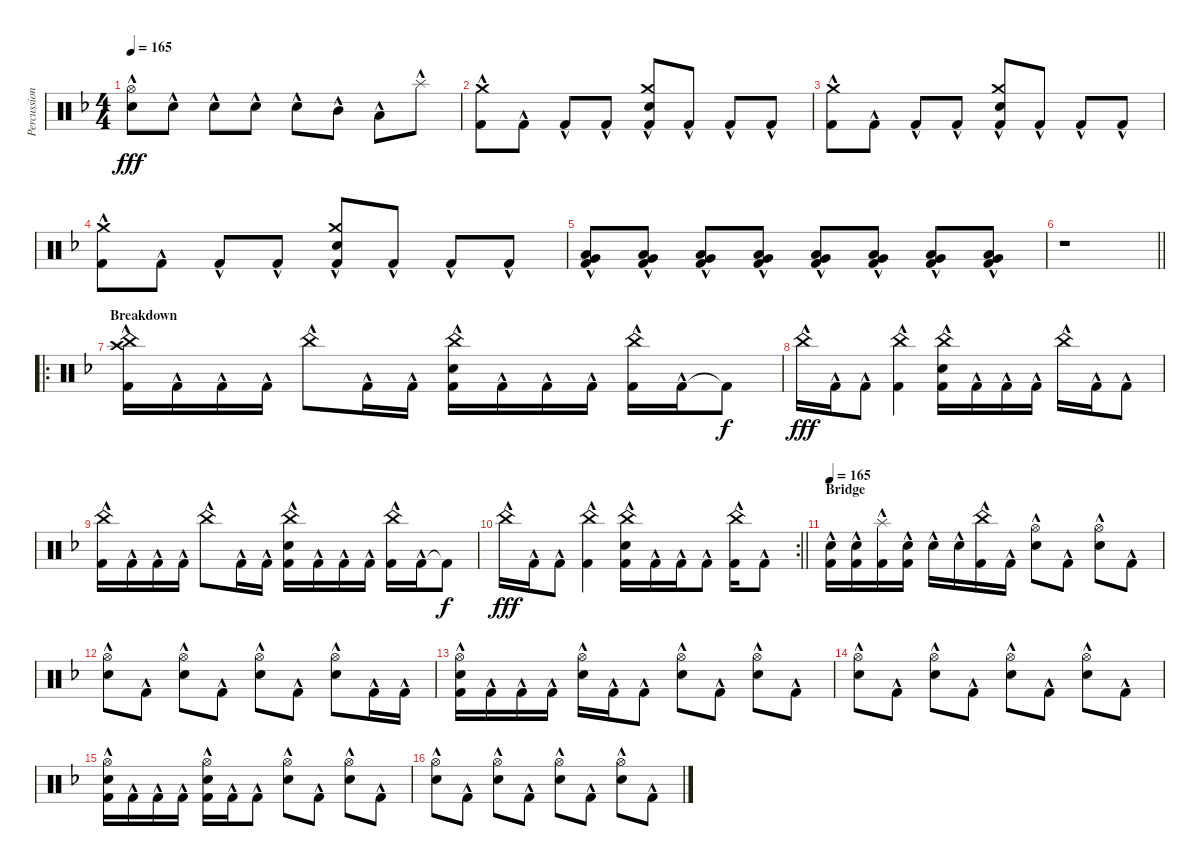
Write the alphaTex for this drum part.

\track ("Percussion" "Percussion") {instrument percussion}
\staff {score}
\articulation defaults
\ts (4 4)
\tempo 165
\clef neutral
\ks f
("Hi-Hat (open)"{hac} "Electric Snare (hit)"{hac}).8{dy fff} "Electric Snare (hit)"{hac}.8 "Electric Snare (hit)"{hac}.8 "Electric Snare (hit)"{hac}.8 "Electric Snare (hit)"{hac}.8 "Mid Tom (hit)"{hac}.8 "Low Tom (hit)"{hac}.8 "Splash (hit)"{hac}.8 |
("Crash medium (hit)"{hac} "Kick (hit) 2"{hac}).8 "Kick (hit) 2"{hac}.8 "Kick (hit) 2"{hac}.8 "Kick (hit) 2"{hac}.8 ("Crash medium (hit)"{hac} "Electric Snare (hit)"{hac} "Kick (hit) 2"{hac}).8 "Kick (hit) 2"{hac}.8 "Kick (hit) 2"{hac}.8 "Kick (hit) 2"{hac}.8 |
("Crash medium (hit)"{hac} "Kick (hit) 2"{hac}).8 "Kick (hit) 2"{hac}.8 "Kick (hit) 2"{hac}.8 "Kick (hit) 2"{hac}.8 ("Crash medium (hit)"{hac} "Electric Snare (hit)"{hac} "Kick (hit) 2"{hac}).8 "Kick (hit) 2"{hac}.8 "Kick (hit) 2"{hac}.8 "Kick (hit) 2"{hac}.8 |
("Crash medium (hit)"{hac} "Kick (hit) 2"{hac}).8 "Kick (hit) 2"{hac}.8 "Kick (hit) 2"{hac}.8 "Kick (hit) 2"{hac}.8 ("Crash medium (hit)"{hac} "Electric Snare (hit)"{hac} "Kick (hit) 2"{hac}).8 "Kick (hit) 2"{hac}.8 "Kick (hit) 2"{hac}.8 "Kick (hit) 2"{hac}.8 |
("Low Tom (hit)"{hac} "Very Low Tom (hit)"{hac} "Kick (hit) 2"{hac}).8 ("Low Tom (hit)"{hac} "Very Low Tom (hit)"{hac} "Kick (hit) 2"{hac}).8 ("Low Tom (hit)"{hac} "Very Low Tom (hit)"{hac} "Kick (hit) 2"{hac}).8 ("Low Tom (hit)"{hac} "Very Low Tom (hit)"{hac} "Kick (hit) 2"{hac}).8 ("Low Tom (hit)"{hac} "Very Low Tom (hit)"{hac} "Kick (hit) 2"{hac}).8 ("Low Tom (hit)"{hac} "Very Low Tom (hit)"{hac} "Kick (hit) 2"{hac}).8 ("Low Tom (hit)"{hac} "Very Low Tom (hit)"{hac} "Kick (hit) 2"{hac}).8 ("Low Tom (hit)"{hac} "Very Low Tom (hit)"{hac} "Kick (hit) 2"{hac}).8 |
\barLineRight lightlight
r.1 |
\ro
\section ("" "Breakdown")
("China (hit)"{hac} "Crash high (hit)"{hac} "Kick (hit) 2"{hac}).16 "Kick (hit) 2"{hac}.16 "Kick (hit) 2"{hac}.16 "Kick (hit) 2"{hac}.16 "China (hit)"{hac}.8 "Kick (hit) 2"{hac}.16 "Kick (hit) 2"{hac}.16 ("China (hit)"{hac} "Electric Snare (hit)"{hac} "Kick (hit) 2"{hac}).16 "Kick (hit) 2"{hac}.16 "Kick (hit) 2"{hac}.16 "Kick (hit) 2"{hac}.16 ("China (hit)"{hac} "Kick (hit) 2"{hac}).16 "Kick (hit) 2"{hac}.16 "Kick (hit) 2"{t}.8{dy f} |
"China (hit)"{hac}.16{dy fff} "Kick (hit) 2"{hac}.16 "Kick (hit) 2"{hac}.8 ("China (hit)"{hac} "Kick (hit) 2"{hac}).4 ("China (hit)"{hac} "Electric Snare (hit)"{hac} "Kick (hit) 2"{hac}).16 "Kick (hit) 2"{hac}.16 "Kick (hit) 2"{hac}.16 "Kick (hit) 2"{hac}.16 "China (hit)"{hac}.16 "Kick (hit) 2"{hac}.16 "Kick (hit) 2"{hac}.8 |
("China (hit)"{hac} "Kick (hit) 2"{hac}).16 "Kick (hit) 2"{hac}.16 "Kick (hit) 2"{hac}.16 "Kick (hit) 2"{hac}.16 "China (hit)"{hac}.8 "Kick (hit) 2"{hac}.16 "Kick (hit) 2"{hac}.16 ("China (hit)"{hac} "Electric Snare (hit)"{hac} "Kick (hit) 2"{hac}).16 "Kick (hit) 2"{hac}.16 "Kick (hit) 2"{hac}.16 "Kick (hit) 2"{hac}.16 ("China (hit)"{hac} "Kick (hit) 2"{hac}).16 "Kick (hit) 2"{hac}.16 "Kick (hit) 2"{t}.8{dy f} |
\rc 2
\barLineRight lightlight "China (hit)"{hac}.16{dy fff} "Kick (hit) 2"{hac}.16 "Kick (hit) 2"{hac}.8
("China (hit)"{hac} "Kick (hit) 2"{hac}).4 ("China (hit)"{hac} "Electric Snare (hit)"{hac} "Kick (hit) 2"{hac}).16 "Kick (hit) 2"{hac}.16 "Kick (hit) 2"{hac}.16 "Kick (hit) 2"{hac}.8 ("China (hit)"{hac} "Kick (hit) 2"{hac}).16 "Kick (hit) 2"{hac}.8 |
\section ("" "Bridge")
\tempo 165
("Electric Snare (hit)"{hac} "Kick (hit) 2"{hac}).16 ("Electric Snare (hit)"{hac} "Kick (hit) 2"{hac}).16 ("Splash (hit)"{hac} "Kick (hit) 2"{hac}).16 ("Electric Snare (hit)"{hac} "Kick (hit) 2"{hac}).16 "Electric Snare (hit)"{hac}.16 "Electric Snare (hit)"{hac}.16 ("China (hit)"{hac} "Kick (hit) 2"{hac}).16 "Kick (hit) 2"{hac}.16 ("Hi-Hat (open)"{hac} "Electric Snare (hit)"{hac}).8 "Kick (hit) 2"{hac}.8 ("Hi-Hat (open)"{hac} "Electric Snare (hit)"{hac}).8 "Kick (hit) 2"{hac}.8 |
("Hi-Hat (open)"{hac} "Electric Snare (hit)"{hac}).8 "Kick (hit) 2"{hac}.8 ("Hi-Hat (open)"{hac} "Electric Snare (hit)"{hac}).8 "Kick (hit) 2"{hac}.8 ("Hi-Hat (open)"{hac} "Electric Snare (hit)"{hac}).8 "Kick (hit) 2"{hac}.8 ("Hi-Hat (open)"{hac} "Electric Snare (hit)"{hac}).8 "Kick (hit) 2"{hac}.16 "Kick (hit) 2"{hac}.16 |
("Hi-Hat (open)"{hac} "Electric Snare (hit)"{hac} "Kick (hit) 2"{hac}).16 "Kick (hit) 2"{hac}.16 "Kick (hit) 2"{hac}.16 "Kick (hit) 2"{hac}.16 ("Hi-Hat (open)"{hac} "Electric Snare (hit)"{hac}).16 "Kick (hit) 2"{hac}.16 "Kick (hit) 2"{hac}.8 ("Hi-Hat (open)"{hac} "Electric Snare (hit)"{hac}).8 "Kick (hit) 2"{hac}.8 ("Hi-Hat (open)"{hac} "Electric Snare (hit)"{hac}).8 "Kick (hit) 2"{hac}.8 |
("Hi-Hat (open)"{hac} "Electric Snare (hit)"{hac}).8 "Kick (hit) 2"{hac}.8 ("Hi-Hat (open)"{hac} "Electric Snare (hit)"{hac}).8 "Kick (hit) 2"{hac}.8 ("Hi-Hat (open)"{hac} "Electric Snare (hit)"{hac}).8 "Kick (hit) 2"{hac}.8 ("Hi-Hat (open)"{hac} "Electric Snare (hit)"{hac}).8 "Kick (hit) 2"{hac}.8 |
("Hi-Hat (open)"{hac} "Electric Snare (hit)"{hac} "Kick (hit) 2"{hac}).16 "Kick (hit) 2"{hac}.16 "Kick (hit) 2"{hac}.16 "Kick (hit) 2"{hac}.16 ("Hi-Hat (open)"{hac} "Electric Snare (hit)"{hac} "Kick (hit) 2"{hac}).16 "Kick (hit) 2"{hac}.16 "Kick (hit) 2"{hac}.8 ("Hi-Hat (open)"{hac} "Electric Snare (hit)"{hac}).8 "Kick (hit) 2"{hac}.8 ("Hi-Hat (open)"{hac} "Electric Snare (hit)"{hac}).8 "Kick (hit) 2"{hac}.8 |
("Hi-Hat (open)"{hac} "Electric Snare (hit)"{hac}).8 "Kick (hit) 2"{hac}.8 ("Hi-Hat (open)"{hac} "Electric Snare (hit)"{hac}).8 "Kick (hit) 2"{hac}.8 ("Hi-Hat (open)"{hac} "Electric Snare (hit)"{hac}).8 "Kick (hit) 2"{hac}.8 ("Hi-Hat (open)"{hac} "Electric Snare (hit)"{hac}).8 "Kick (hit) 2"{hac}.8
